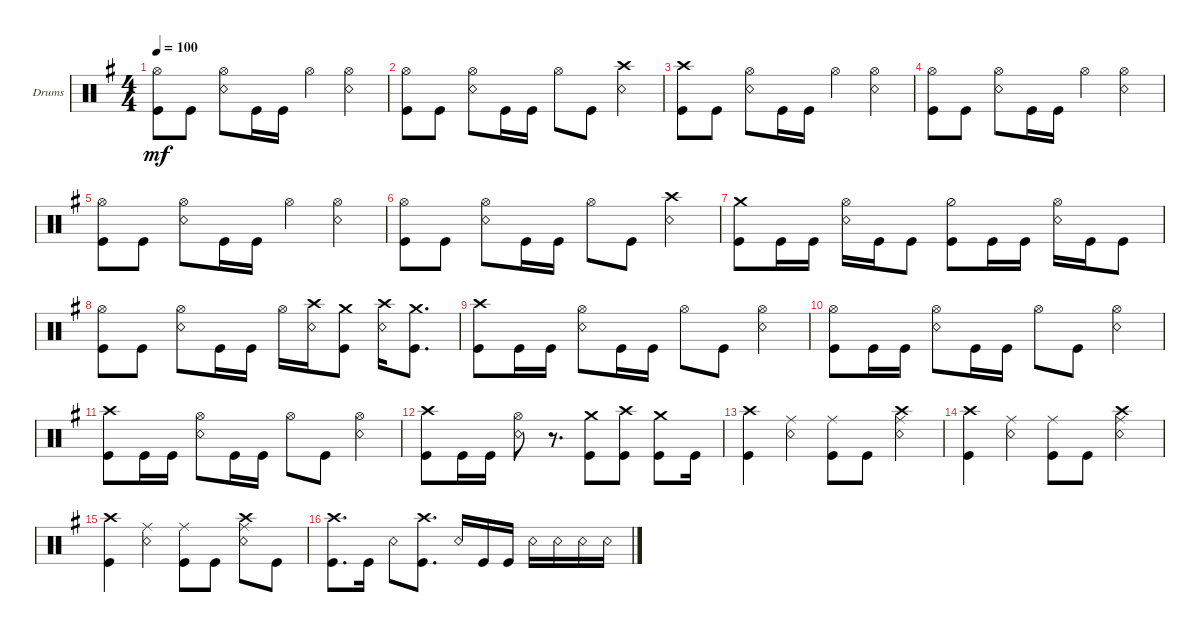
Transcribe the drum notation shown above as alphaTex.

\defaultSystemsLayout 4
\bracketExtendMode groupsimilarinstruments
\firstSystemTrackNameOrientation horizontal
\otherSystemsTrackNameOrientation horizontal
\track ("Drumkit" "Drums") {instrument percussion}
\staff {score}
\articulation defaults
\ts (4 4)
\tempo 100
\clef neutral
\ks eminor
("Kick (hit)" "Hi-Hat (open)").8{dy mf} "Kick (hit)".8 ("Hi-Hat (open)" "Snare (rim shot)").8 "Kick (hit)".16 "Kick (hit)".16 "Hi-Hat (open)".4 ("Hi-Hat (open)" "Snare (rim shot)").4 |
("Kick (hit)" "Hi-Hat (open)").8 "Kick (hit)".8 ("Hi-Hat (open)" "Snare (rim shot)").8 "Kick (hit)".16 "Kick (hit)".16 "Hi-Hat (open)".8 "Kick (hit)".8 ("Snare (rim shot)" "Crash high (hit)").4 |
("Kick (hit)" "Crash high (hit)").8 "Kick (hit)".8 ("Hi-Hat (open)" "Snare (rim shot)").8 "Kick (hit)".16 "Kick (hit)".16 "Hi-Hat (open)".4 ("Hi-Hat (open)" "Snare (rim shot)").4 |
("Kick (hit)" "Hi-Hat (open)").8 "Kick (hit)".8 ("Hi-Hat (open)" "Snare (rim shot)").8 "Kick (hit)".16 "Kick (hit)".16 "Hi-Hat (open)".4 ("Hi-Hat (open)" "Snare (rim shot)").4 |
("Kick (hit)" "Hi-Hat (open)").8 "Kick (hit)".8 ("Hi-Hat (open)" "Snare (rim shot)").8 "Kick (hit)".16 "Kick (hit)".16 "Hi-Hat (open)".4 ("Hi-Hat (open)" "Snare (rim shot)").4 |
("Kick (hit)" "Hi-Hat (open)").8 "Kick (hit)".8 ("Hi-Hat (open)" "Snare (rim shot)").8 "Kick (hit)".16 "Kick (hit)".16 "Hi-Hat (open)".8 "Kick (hit)".8 ("Snare (rim shot)" "Crash high (hit)").4 |
("Crash medium (hit)" "Kick (hit)").8 "Kick (hit)".16 "Kick (hit)".16 ("Snare (rim shot)" "Hi-Hat (open)").16 "Kick (hit)".16 "Kick (hit)".8 ("Kick (hit)" "Hi-Hat (half)").8 "Kick (hit)".16 "Kick (hit)".16 ("Snare (rim shot)" "Hi-Hat (open)").16 "Kick (hit)".16 "Kick (hit)".8 |
("Kick (hit)" "Hi-Hat (open)").8 "Kick (hit)".8 ("Hi-Hat (open)" "Snare (rim shot)").8 "Kick (hit)".16 "Kick (hit)".16 "Hi-Hat (open)".16 ("Snare (rim shot)" "Crash high (hit)").16 ("Kick (hit)" "Crash medium (hit)").8 ("Snare (rim shot)" "Crash high (hit)").16 ("Kick (hit)" "Crash medium (hit)").8{d} |
("Kick (hit)" "Crash high (hit)").8 "Kick (hit)".16 "Kick (hit)".16 ("Hi-Hat (open)" "Snare (rim shot)").8 "Kick (hit)".16 "Kick (hit)".16 "Hi-Hat (open)".8 "Kick (hit)".8 ("Hi-Hat (open)" "Snare (rim shot)").4 |
("Kick (hit)" "Hi-Hat (open)").8 "Kick (hit)".16 "Kick (hit)".16 ("Hi-Hat (open)" "Snare (rim shot)").8 "Kick (hit)".16 "Kick (hit)".16 "Hi-Hat (open)".8 "Kick (hit)".8 ("Hi-Hat (open)" "Snare (rim shot)").4 |
("Kick (hit)" "Crash high (hit)").8 "Kick (hit)".16 "Kick (hit)".16 ("Hi-Hat (open)" "Snare (rim shot)").8 "Kick (hit)".16 "Kick (hit)".16 "Hi-Hat (open)".8 "Kick (hit)".8 ("Hi-Hat (open)" "Snare (rim shot)").4 |
("Kick (hit)" "Crash high (hit)").8 "Kick (hit)".16 "Kick (hit)".16 ("Hi-Hat (open)" "Snare (rim shot)").8 r.8{d} ("Kick (hit)" "Crash medium (hit)").8 ("Kick (hit)" "Crash high (hit)").8 ("Kick (hit)" "Crash medium (hit)").8 "Kick (hit)".16 |
("Kick (hit)" "Crash high (hit)").4 ("Ride (middle)" "Snare (rim shot)").4 ("Kick (hit)" "Ride (middle)").8 "Kick (hit)".8 ("Ride (middle)" "Snare (rim shot)" "Crash high (hit)").4 |
("Kick (hit)" "Crash high (hit)").4 ("Ride (middle)" "Snare (rim shot)").4 ("Kick (hit)" "Ride (middle)").8 "Kick (hit)".8 ("Ride (middle)" "Snare (rim shot)" "Crash high (hit)").4 |
("Kick (hit)" "Crash high (hit)").4 ("Ride (middle)" "Snare (rim shot)").4 ("Kick (hit)" "Ride (middle)").8 "Kick (hit)".8 ("Ride (middle)" "Snare (rim shot)" "Crash high (hit)").8 "Kick (hit)".8 |
("Kick (hit)" "Crash high (hit)").8{d} "Kick (hit)".16 "Snare (rim shot)".8 ("Kick (hit)" "Crash high (hit)").8{d} "Snare (rim shot)".16 "Kick (hit)".16 "Kick (hit)".16 "Snare (rim shot)".16 "Snare (rim shot)".16 "Snare (rim shot)".16 "Snare (rim shot)".16
